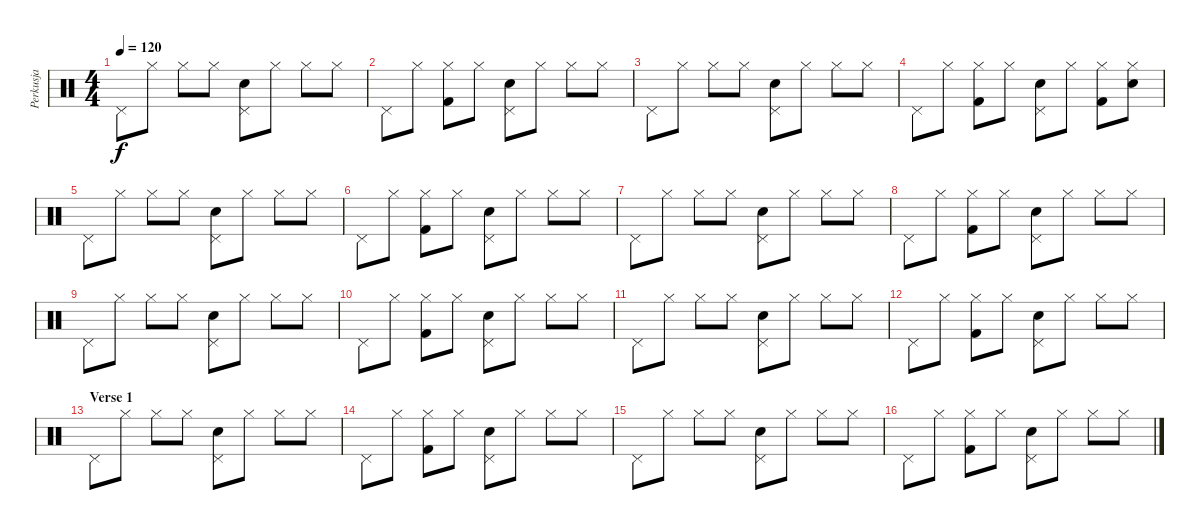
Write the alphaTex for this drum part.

\track ("Perkusja" "Perkusja") {instrument percussion}
\staff {score}
\articulation defaults
\ts (4 4)
\tempo 120
\clef neutral
\ks c "Pedal Hi-Hat (hit)".8{dy f} "Hi-Hat (closed)".8 "Hi-Hat (closed)".8 "Hi-Hat (closed)".8
("Pedal Hi-Hat (hit)" "Snare (hit) 2").8 "Hi-Hat (closed)".8 "Hi-Hat (closed)".8 "Hi-Hat (closed)".8 |
"Pedal Hi-Hat (hit)".8 "Hi-Hat (closed)".8 ("Hi-Hat (closed)" "Kick (hit) 2").8 "Hi-Hat (closed)".8 ("Pedal Hi-Hat (hit)" "Snare (hit) 2").8 "Hi-Hat (closed)".8 "Hi-Hat (closed)".8 "Hi-Hat (closed)".8 |
"Pedal Hi-Hat (hit)".8 "Hi-Hat (closed)".8 "Hi-Hat (closed)".8 "Hi-Hat (closed)".8 ("Pedal Hi-Hat (hit)" "Snare (hit) 2").8 "Hi-Hat (closed)".8 "Hi-Hat (closed)".8 "Hi-Hat (closed)".8 |
"Pedal Hi-Hat (hit)".8 "Hi-Hat (closed)".8 ("Hi-Hat (closed)" "Kick (hit) 2").8 "Hi-Hat (closed)".8 ("Pedal Hi-Hat (hit)" "Snare (hit) 2").8 "Hi-Hat (closed)".8 ("Hi-Hat (closed)" "Kick (hit) 2").8 ("Hi-Hat (closed)" "Snare (hit) 2").8 |
"Pedal Hi-Hat (hit)".8 "Hi-Hat (closed)".8 "Hi-Hat (closed)".8 "Hi-Hat (closed)".8 ("Pedal Hi-Hat (hit)" "Snare (hit) 2").8 "Hi-Hat (closed)".8 "Hi-Hat (closed)".8 "Hi-Hat (closed)".8 |
"Pedal Hi-Hat (hit)".8 "Hi-Hat (closed)".8 ("Hi-Hat (closed)" "Kick (hit) 2").8 "Hi-Hat (closed)".8 ("Pedal Hi-Hat (hit)" "Snare (hit) 2").8 "Hi-Hat (closed)".8 "Hi-Hat (closed)".8 "Hi-Hat (closed)".8 |
"Pedal Hi-Hat (hit)".8 "Hi-Hat (closed)".8 "Hi-Hat (closed)".8 "Hi-Hat (closed)".8 ("Pedal Hi-Hat (hit)" "Snare (hit) 2").8 "Hi-Hat (closed)".8 "Hi-Hat (closed)".8 "Hi-Hat (closed)".8 |
"Pedal Hi-Hat (hit)".8 "Hi-Hat (closed)".8 ("Hi-Hat (closed)" "Kick (hit) 2").8 "Hi-Hat (closed)".8 ("Pedal Hi-Hat (hit)" "Snare (hit) 2").8 "Hi-Hat (closed)".8 "Hi-Hat (closed)".8 "Hi-Hat (closed)".8 |
"Pedal Hi-Hat (hit)".8 "Hi-Hat (closed)".8 "Hi-Hat (closed)".8 "Hi-Hat (closed)".8 ("Pedal Hi-Hat (hit)" "Snare (hit) 2").8 "Hi-Hat (closed)".8 "Hi-Hat (closed)".8 "Hi-Hat (closed)".8 |
"Pedal Hi-Hat (hit)".8 "Hi-Hat (closed)".8 ("Hi-Hat (closed)" "Kick (hit) 2").8 "Hi-Hat (closed)".8 ("Pedal Hi-Hat (hit)" "Snare (hit) 2").8 "Hi-Hat (closed)".8 "Hi-Hat (closed)".8 "Hi-Hat (closed)".8 |
"Pedal Hi-Hat (hit)".8 "Hi-Hat (closed)".8 "Hi-Hat (closed)".8 "Hi-Hat (closed)".8 ("Pedal Hi-Hat (hit)" "Snare (hit) 2").8 "Hi-Hat (closed)".8 "Hi-Hat (closed)".8 "Hi-Hat (closed)".8 |
"Pedal Hi-Hat (hit)".8 "Hi-Hat (closed)".8 ("Hi-Hat (closed)" "Kick (hit) 2").8 "Hi-Hat (closed)".8 ("Pedal Hi-Hat (hit)" "Snare (hit) 2").8 "Hi-Hat (closed)".8 "Hi-Hat (closed)".8 "Hi-Hat (closed)".8 |
\section ("" "Verse 1")
"Pedal Hi-Hat (hit)".8 "Hi-Hat (closed)".8 "Hi-Hat (closed)".8 "Hi-Hat (closed)".8 ("Pedal Hi-Hat (hit)" "Snare (hit) 2").8 "Hi-Hat (closed)".8 "Hi-Hat (closed)".8 "Hi-Hat (closed)".8 |
"Pedal Hi-Hat (hit)".8 "Hi-Hat (closed)".8 ("Hi-Hat (closed)" "Kick (hit) 2").8 "Hi-Hat (closed)".8 ("Pedal Hi-Hat (hit)" "Snare (hit) 2").8 "Hi-Hat (closed)".8 "Hi-Hat (closed)".8 "Hi-Hat (closed)".8 |
"Pedal Hi-Hat (hit)".8 "Hi-Hat (closed)".8 "Hi-Hat (closed)".8 "Hi-Hat (closed)".8 ("Pedal Hi-Hat (hit)" "Snare (hit) 2").8 "Hi-Hat (closed)".8 "Hi-Hat (closed)".8 "Hi-Hat (closed)".8 |
"Pedal Hi-Hat (hit)".8 "Hi-Hat (closed)".8 ("Hi-Hat (closed)" "Kick (hit) 2").8 "Hi-Hat (closed)".8 ("Pedal Hi-Hat (hit)" "Snare (hit) 2").8 "Hi-Hat (closed)".8 "Hi-Hat (closed)".8 "Hi-Hat (closed)".8
